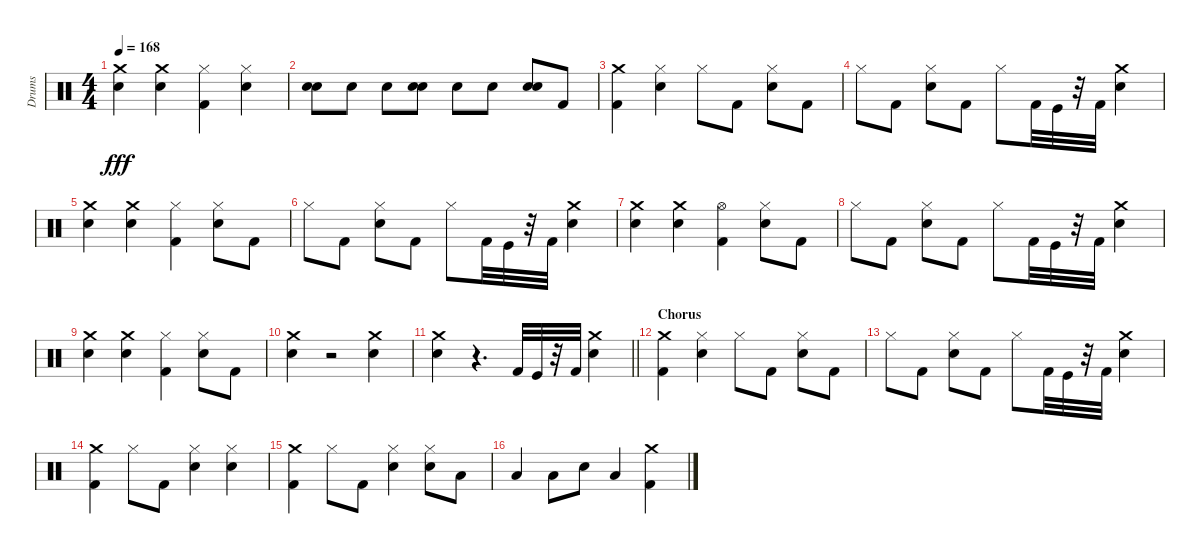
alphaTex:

\track ("Drums" "Drums") {instrument percussion}
\staff {score}
\articulation defaults
\ts (4 4)
\tempo 168
\clef neutral
\ks c
("Snare (hit) 2" "Crash medium (hit)").4{dy fff} ("Snare (hit) 2" "Crash medium (hit)").4 ("Kick (hit) 2" "Hi-Hat (closed)").4 ("Hi-Hat (closed)" "Snare (hit) 2").4 |
("Snare (hit) 2" "Snare (hit) 2").8 "Snare (hit) 2".8 "Snare (hit) 2".8 ("Snare (hit) 2" "Snare (hit) 2").8 "Snare (hit) 2".8 "Snare (hit) 2".8 ("Snare (hit) 2" "Snare (hit) 2").8 "Kick (hit) 2".8 |
("Kick (hit) 2" "Crash medium (hit)").4 ("Hi-Hat (closed)" "Snare (hit) 2").4 "Hi-Hat (closed)".8 "Kick (hit) 2".8 ("Snare (hit) 2" "Hi-Hat (closed)").8 "Kick (hit) 2".8 |
"Hi-Hat (closed)".8 "Kick (hit) 2".8 ("Snare (hit) 2" "Hi-Hat (closed)").8 "Kick (hit) 2".8 "Hi-Hat (closed)".8 "Kick (hit) 2".32 "Kick (hit)".32 r.32 "Kick (hit) 2".32 ("Crash medium (hit)" "Snare (hit) 2").4 |
("Crash medium (hit)" "Snare (hit) 2").4 ("Crash medium (hit)" "Snare (hit) 2").4 ("Hi-Hat (closed)" "Kick (hit) 2").4 ("Snare (hit) 2" "Hi-Hat (closed)").8 "Kick (hit) 2".8 |
"Hi-Hat (closed)".8 "Kick (hit) 2".8 ("Snare (hit) 2" "Hi-Hat (closed)").8 "Kick (hit) 2".8 "Hi-Hat (closed)".8 "Kick (hit) 2".32 "Kick (hit)".32 r.32 "Kick (hit) 2".32 ("Crash medium (hit)" "Snare (hit) 2").4 |
("Crash medium (hit)" "Snare (hit) 2").4 ("Crash medium (hit)" "Snare (hit) 2").4 ("Hi-Hat (open)" "Kick (hit) 2").4 ("Snare (hit) 2" "Hi-Hat (closed)").8 "Kick (hit) 2".8 |
"Hi-Hat (closed)".8 "Kick (hit) 2".8 ("Snare (hit) 2" "Hi-Hat (closed)").8 "Kick (hit) 2".8 "Hi-Hat (closed)".8 "Kick (hit) 2".32 "Kick (hit)".32 r.32 "Kick (hit) 2".32 ("Crash medium (hit)" "Snare (hit) 2").4 |
("Crash medium (hit)" "Snare (hit) 2").4 ("Crash medium (hit)" "Snare (hit) 2").4 ("Hi-Hat (closed)" "Kick (hit) 2").4 ("Snare (hit) 2" "Hi-Hat (closed)").8 "Kick (hit) 2".8 |
("Snare (hit) 2" "Crash medium (hit)").4 r.2 ("Crash medium (hit)" "Snare (hit) 2").4 |
\barLineRight lightlight
("Snare (hit) 2" "Crash medium (hit)").4 r.4{d} "Kick (hit) 2".32 "Kick (hit)".32 r.32 "Kick (hit) 2".32 ("Crash medium (hit)" "Snare (hit) 2").4 |
\section ("" "Chorus")
("Kick (hit) 2" "Crash medium (hit)").4 ("Hi-Hat (closed)" "Snare (hit) 2").4 "Hi-Hat (closed)".8 "Kick (hit) 2".8 ("Snare (hit) 2" "Hi-Hat (closed)").8 "Kick (hit) 2".8 |
"Hi-Hat (closed)".8 "Kick (hit) 2".8 ("Snare (hit) 2" "Hi-Hat (closed)").8 "Kick (hit) 2".8 "Hi-Hat (closed)".8 "Kick (hit) 2".32 "Kick (hit)".32 r.32 "Kick (hit) 2".32 ("Crash medium (hit)" "Snare (hit) 2").4 |
("Kick (hit) 2" "Crash medium (hit)").4 "Hi-Hat (closed)".8 "Kick (hit) 2".8 ("Snare (hit) 2" "Hi-Hat (closed)").4 ("Hi-Hat (closed)" "Snare (hit) 2").4 |
("Kick (hit) 2" "Crash medium (hit)").4 "Hi-Hat (closed)".8 "Kick (hit) 2".8 ("Snare (hit) 2" "Hi-Hat (closed)").4 ("Hi-Hat (closed)" "Snare (hit) 2").8 "Low Tom (hit)".8 |
"Low Tom (hit)".4 "Low Tom (hit)".8 "Snare (hit) 2".8 "Low Tom (hit)".4 ("Kick (hit) 2" "Crash medium (hit)").4
